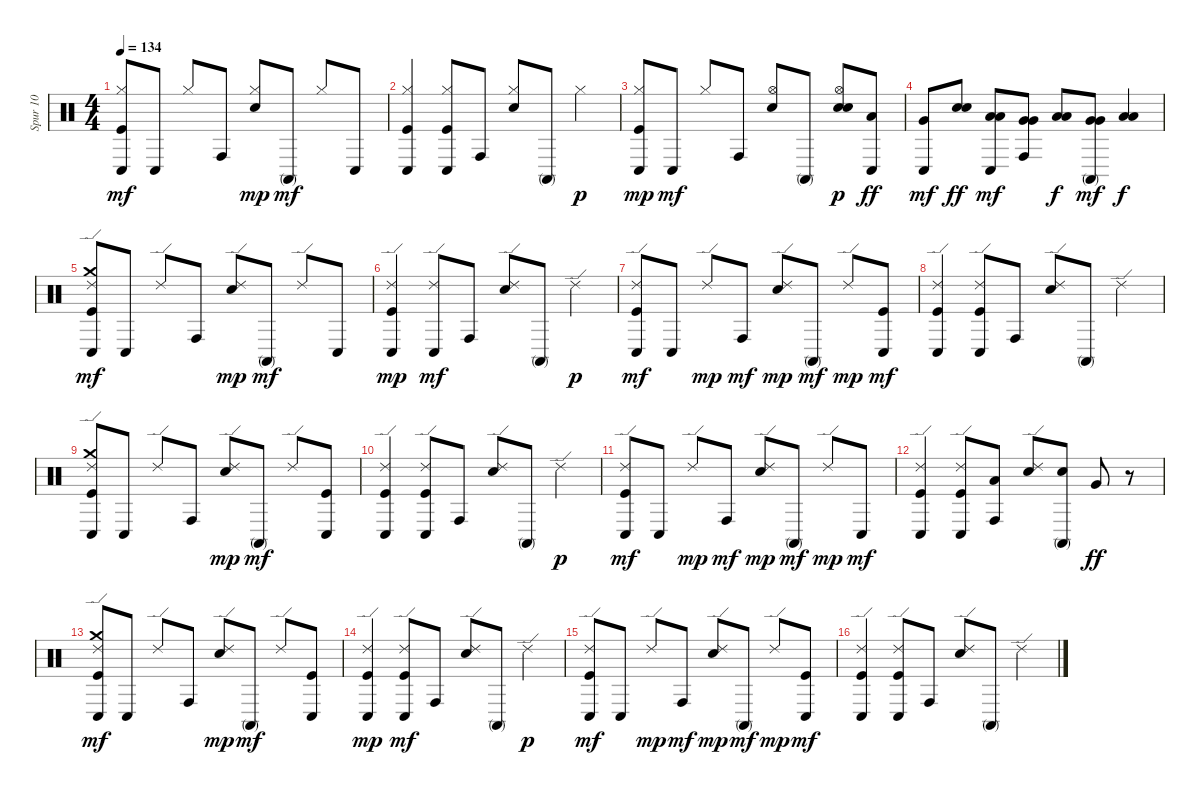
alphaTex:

\track ("Spur 10" "Spur 10") {instrument percussion}
\staff {score}
\articulation defaults
\ts (4 4)
\tempo 134
\clef neutral
\ks c
("Kick (hit)" "Hi-Hat (closed)" "Conga low (hit)").8{dy mf} "Conga low (hit)".8 "Hi-Hat (closed)".8 "Conga high (hit)".8 ("Electric Snare (hit)" "Hi-Hat (closed)").8{dy mp} "Conga high (mute)".8{dy mf} "Hi-Hat (closed)".8 "Conga low (hit)".8 |
("Kick (hit)" "Hi-Hat (closed)" "Conga low (hit)").4 ("Kick (hit)" "Hi-Hat (closed)" "Conga low (hit)").8 "Conga high (hit)".8 ("Electric Snare (hit)" "Hi-Hat (closed)").8 "Conga high (mute)".8 "Hi-Hat (closed)".4{dy p} |
("Conga low (hit)" "Hi-Hat (closed)" "Kick (hit)").8{dy mp} "Conga low (hit)".8{dy mf} "Hi-Hat (closed)".8 "Conga high (hit)".8 ("Hi-Hat (open)" "Electric Snare (hit)").8 "Conga high (mute)".8 ("Electric Snare (hit)" "Hi-Hat (open)" "Electric Snare (hit)").8{dy p} ("Conga low (hit)" "Low Tom (hit)").8{dy ff} |
("Conga low (hit)" "Very Low Tom (hit)").8{dy mf} ("Electric Snare (hit)" "Electric Snare (hit)").8{dy ff} ("Conga low (hit)" "Low Tom (hit)" "Low Tom (hit)").8{dy mf} ("Conga high (hit)" "Very Low Tom (hit)" "Very Low Tom (hit)").8 ("Low Floor Tom (hit)" "Low Floor Tom (hit)").8{dy f} ("Conga high (mute)" "Very Low Tom (hit)" "Very Low Tom (hit)").8{dy mf} ("Low Tom (hit)" "Low Tom (hit)").4{dy f} |
("Conga low (hit)" "Kick (hit)" "Ride (edge) 2" "Crash medium (hit)").8{dy mf} "Conga low (hit)".8 "Ride (edge) 2".8 "Conga high (hit)".8 ("Electric Snare (hit)" "Ride (edge) 2").8{dy mp} "Conga high (mute)".8{dy mf} "Ride (edge) 2".8 "Conga low (hit)".8 |
("Conga low (hit)" "Ride (edge) 2" "Kick (hit)").4{dy mp} ("Conga low (hit)" "Ride (edge) 2").8{dy mf} "Conga high (hit)".8 ("Ride (edge) 2" "Electric Snare (hit)").8 "Conga high (mute)".8 "Ride (edge) 2".4{dy p} |
("Ride (edge) 2" "Kick (hit)" "Conga low (hit)").8{dy mf} "Conga low (hit)".8 "Ride (edge) 2".8{dy mp} "Conga high (hit)".8{dy mf} ("Electric Snare (hit)" "Ride (edge) 2").8{dy mp} "Conga high (mute)".8{dy mf} "Ride (edge) 2".8{dy mp} ("Conga low (hit)" "Kick (hit)").8{dy mf} |
("Ride (edge) 2" "Kick (hit)" "Conga low (hit)").4 ("Kick (hit)" "Ride (edge) 2" "Conga low (hit)").8 "Conga high (hit)".8 ("Ride (edge) 2" "Electric Snare (hit)").8 "Conga high (mute)".8 "Ride (edge) 2".4 |
("Kick (hit)" "Crash medium (hit)" "Ride (edge) 2" "Conga low (hit)").8 "Conga low (hit)".8 "Ride (edge) 2".8 "Conga high (hit)".8 ("Electric Snare (hit)" "Ride (edge) 2").8{dy mp} "Conga high (mute)".8{dy mf} "Ride (edge) 2".8 ("Kick (hit)" "Conga low (hit)").8 |
("Kick (hit)" "Ride (edge) 2" "Conga low (hit)").4 ("Ride (edge) 2" "Kick (hit)" "Conga low (hit)").8 "Conga high (hit)".8 ("Electric Snare (hit)" "Ride (edge) 2").8 "Conga high (mute)".8 "Ride (edge) 2".4{dy p} |
("Kick (hit)" "Ride (edge) 2" "Conga low (hit)").8{dy mf} "Conga low (hit)".8 "Ride (edge) 2".8{dy mp} "Conga high (hit)".8{dy mf} ("Electric Snare (hit)" "Ride (edge) 2").8{dy mp} "Conga high (mute)".8{dy mf} "Ride (edge) 2".8{dy mp} "Conga low (hit)".8{dy mf} |
("Kick (hit)" "Ride (edge) 2" "Conga low (hit)").4 ("Ride (edge) 2" "Conga low (hit)" "Kick (hit)").8 ("Conga high (hit)" "Low Tom (hit)").8 ("Electric Snare (hit)" "Ride (edge) 2").8 ("Conga high (mute)" "Electric Snare (hit)").8 "Very Low Tom (hit)".8{dy ff} r.8 |
("Conga low (hit)" "Crash medium (hit)" "Ride (edge) 2" "Kick (hit)").8{dy mf} "Conga low (hit)".8 "Ride (edge) 2".8 "Conga high (hit)".8 ("Ride (edge) 2" "Electric Snare (hit)").8{dy mp} "Conga high (mute)".8{dy mf} "Ride (edge) 2".8 ("Conga low (hit)" "Kick (hit)").8 |
("Conga low (hit)" "Ride (edge) 2" "Kick (hit)").4{dy mp} ("Conga low (hit)" "Ride (edge) 2" "Kick (hit)").8{dy mf} "Conga high (hit)".8 ("Ride (edge) 2" "Electric Snare (hit)").8 "Conga high (mute)".8 "Ride (edge) 2".4{dy p} |
("Ride (edge) 2" "Kick (hit)" "Conga low (hit)").8{dy mf} "Conga low (hit)".8 "Ride (edge) 2".8{dy mp} "Conga high (hit)".8{dy mf} ("Ride (edge) 2" "Electric Snare (hit)").8{dy mp} "Conga high (mute)".8{dy mf} "Ride (edge) 2".8{dy mp} ("Conga low (hit)" "Kick (hit)").8{dy mf} |
("Ride (edge) 2" "Conga low (hit)" "Kick (hit)").4 ("Ride (edge) 2" "Conga low (hit)" "Kick (hit)").8 "Conga high (hit)".8 ("Ride (edge) 2" "Electric Snare (hit)").8 "Conga high (mute)".8 "Ride (edge) 2".4
